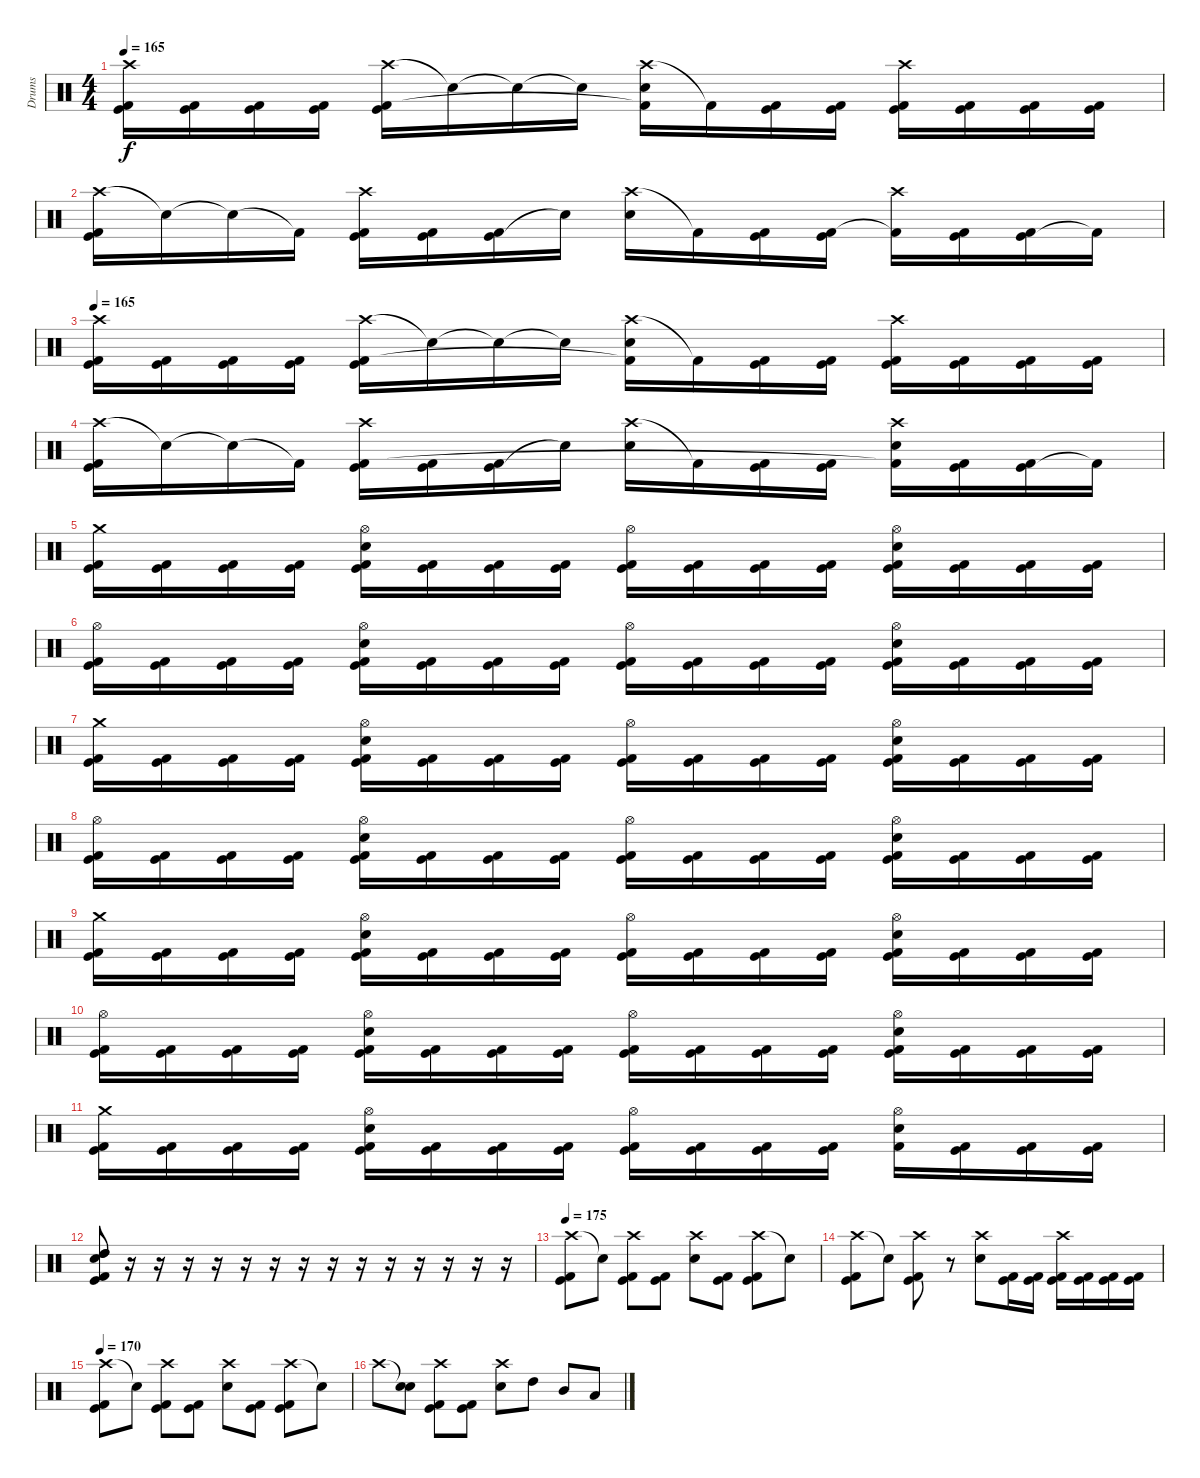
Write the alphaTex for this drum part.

\track ("Drums" "Drums") {instrument percussion}
\staff {score}
\articulation defaults
\ts (4 4)
\tempo 165
\clef neutral
\ks c
("Crash high (hit)" "Kick (hit)" "Kick (hit) 2").16{dy f} ("Kick (hit)" "Kick (hit) 2").16 ("Kick (hit)" "Kick (hit) 2").16 ("Kick (hit)" "Kick (hit) 2").16 ("Crash high (hit)" "Kick (hit)" "Kick (hit) 2").16 "Snare (hit)"{t}.16 "Snare (hit)"{t}.16 "Snare (hit)"{t}.16 ("Crash high (hit)" "Electric Snare (hit)" "Kick (hit) 2"{t}).16 "Kick (hit) 2"{t}.16 ("Kick (hit)" "Kick (hit) 2").16 ("Kick (hit)" "Kick (hit) 2").16 ("Crash high (hit)" "Kick (hit)" "Kick (hit) 2").16 ("Kick (hit)" "Kick (hit) 2").16 ("Kick (hit)" "Kick (hit) 2").16 ("Kick (hit)" "Kick (hit) 2").16 |
("Crash high (hit)" "Kick (hit)" "Kick (hit) 2").16 "Snare (hit)"{t}.16 "Snare (hit)"{t}.16 "Kick (hit) 2"{t}.16 ("Crash high (hit)" "Kick (hit)" "Kick (hit) 2").16 ("Kick (hit)" "Kick (hit) 2").16 ("Kick (hit)" "Kick (hit) 2").16 "Snare (hit)"{t}.16 ("Crash high (hit)" "Electric Snare (hit)").16 "Kick (hit) 2"{t}.16 ("Kick (hit)" "Kick (hit) 2").16 ("Kick (hit)" "Kick (hit) 2").16 ("Crash high (hit)" "Kick (hit) 2"{t}).16 ("Kick (hit)" "Kick (hit) 2").16 ("Kick (hit)" "Kick (hit) 2").16 "Kick (hit) 2"{t}.16 |
\tempo 165
("Crash high (hit)" "Kick (hit)" "Kick (hit) 2").16 ("Kick (hit)" "Kick (hit) 2").16 ("Kick (hit)" "Kick (hit) 2").16 ("Kick (hit)" "Kick (hit) 2").16 ("Crash high (hit)" "Kick (hit)" "Kick (hit) 2").16 "Snare (hit)"{t}.16 "Snare (hit)"{t}.16 "Snare (hit)"{t}.16 ("Crash high (hit)" "Electric Snare (hit)" "Kick (hit) 2"{t}).16 "Kick (hit) 2"{t}.16 ("Kick (hit)" "Kick (hit) 2").16 ("Kick (hit)" "Kick (hit) 2").16 ("Crash high (hit)" "Kick (hit)" "Kick (hit) 2").16 ("Kick (hit)" "Kick (hit) 2").16 ("Kick (hit)" "Kick (hit) 2").16 ("Kick (hit)" "Kick (hit) 2").16 |
("Crash high (hit)" "Kick (hit)" "Kick (hit) 2").16 "Snare (hit)"{t}.16 "Snare (hit)"{t}.16 "Kick (hit) 2"{t}.16 ("Crash high (hit)" "Kick (hit)" "Kick (hit) 2").16 ("Kick (hit)" "Kick (hit) 2").16 ("Kick (hit)" "Kick (hit) 2").16 "Snare (hit)"{t}.16 ("Crash high (hit)" "Electric Snare (hit)").16 "Kick (hit) 2"{t}.16 ("Kick (hit)" "Kick (hit) 2").16 ("Kick (hit)" "Kick (hit) 2").16 ("Crash high (hit)" "Electric Snare (hit)" "Kick (hit) 2"{t}).16 ("Kick (hit)" "Kick (hit) 2").16 ("Kick (hit)" "Kick (hit) 2").16 "Kick (hit) 2"{t}.16 |
("Crash medium (hit)" "Kick (hit)" "Kick (hit) 2").16 ("Kick (hit)" "Kick (hit) 2").16 ("Kick (hit)" "Kick (hit) 2").16 ("Kick (hit)" "Kick (hit) 2").16 ("Kick (hit)" "Hi-Hat (open)" "Electric Snare (hit)" "Kick (hit) 2").16 ("Kick (hit)" "Kick (hit) 2").16 ("Kick (hit)" "Kick (hit) 2").16 ("Kick (hit)" "Kick (hit) 2").16 ("Hi-Hat (open)" "Kick (hit)" "Kick (hit) 2").16 ("Kick (hit)" "Kick (hit) 2").16 ("Kick (hit)" "Kick (hit) 2").16 ("Kick (hit)" "Kick (hit) 2").16 ("Kick (hit)" "Hi-Hat (open)" "Electric Snare (hit)" "Kick (hit) 2").16 ("Kick (hit)" "Kick (hit) 2").16 ("Kick (hit)" "Kick (hit) 2").16 ("Kick (hit)" "Kick (hit) 2").16 |
("Hi-Hat (open)" "Kick (hit)" "Kick (hit) 2").16 ("Kick (hit)" "Kick (hit) 2").16 ("Kick (hit)" "Kick (hit) 2").16 ("Kick (hit)" "Kick (hit) 2").16 ("Kick (hit)" "Hi-Hat (open)" "Electric Snare (hit)" "Kick (hit) 2").16 ("Kick (hit)" "Kick (hit) 2").16 ("Kick (hit)" "Kick (hit) 2").16 ("Kick (hit)" "Kick (hit) 2").16 ("Hi-Hat (open)" "Kick (hit)" "Kick (hit) 2").16 ("Kick (hit)" "Kick (hit) 2").16 ("Kick (hit)" "Kick (hit) 2").16 ("Kick (hit)" "Kick (hit) 2").16 ("Kick (hit)" "Hi-Hat (open)" "Electric Snare (hit)" "Kick (hit) 2").16 ("Kick (hit)" "Kick (hit) 2").16 ("Kick (hit)" "Kick (hit) 2").16 ("Kick (hit)" "Kick (hit) 2").16 |
("Crash medium (hit)" "Kick (hit)" "Kick (hit) 2").16 ("Kick (hit)" "Kick (hit) 2").16 ("Kick (hit)" "Kick (hit) 2").16 ("Kick (hit)" "Kick (hit) 2").16 ("Kick (hit)" "Hi-Hat (open)" "Electric Snare (hit)" "Kick (hit) 2").16 ("Kick (hit)" "Kick (hit) 2").16 ("Kick (hit)" "Kick (hit) 2").16 ("Kick (hit)" "Kick (hit) 2").16 ("Hi-Hat (open)" "Kick (hit)" "Kick (hit) 2").16 ("Kick (hit)" "Kick (hit) 2").16 ("Kick (hit)" "Kick (hit) 2").16 ("Kick (hit)" "Kick (hit) 2").16 ("Kick (hit)" "Hi-Hat (open)" "Electric Snare (hit)" "Kick (hit) 2").16 ("Kick (hit)" "Kick (hit) 2").16 ("Kick (hit)" "Kick (hit) 2").16 ("Kick (hit)" "Kick (hit) 2").16 |
("Hi-Hat (open)" "Kick (hit)" "Kick (hit) 2").16 ("Kick (hit)" "Kick (hit) 2").16 ("Kick (hit)" "Kick (hit) 2").16 ("Kick (hit)" "Kick (hit) 2").16 ("Kick (hit)" "Hi-Hat (open)" "Electric Snare (hit)" "Kick (hit) 2").16 ("Kick (hit)" "Kick (hit) 2").16 ("Kick (hit)" "Kick (hit) 2").16 ("Kick (hit)" "Kick (hit) 2").16 ("Hi-Hat (open)" "Kick (hit)" "Kick (hit) 2").16 ("Kick (hit)" "Kick (hit) 2").16 ("Kick (hit)" "Kick (hit) 2").16 ("Kick (hit)" "Kick (hit) 2").16 ("Kick (hit)" "Hi-Hat (open)" "Electric Snare (hit)" "Kick (hit) 2").16 ("Kick (hit)" "Kick (hit) 2").16 ("Kick (hit)" "Kick (hit) 2").16 ("Kick (hit)" "Kick (hit) 2").16 |
("Crash medium (hit)" "Kick (hit)" "Kick (hit) 2").16 ("Kick (hit)" "Kick (hit) 2").16 ("Kick (hit)" "Kick (hit) 2").16 ("Kick (hit)" "Kick (hit) 2").16 ("Kick (hit)" "Hi-Hat (open)" "Electric Snare (hit)" "Kick (hit) 2").16 ("Kick (hit)" "Kick (hit) 2").16 ("Kick (hit)" "Kick (hit) 2").16 ("Kick (hit)" "Kick (hit) 2").16 ("Hi-Hat (open)" "Kick (hit)" "Kick (hit) 2").16 ("Kick (hit)" "Kick (hit) 2").16 ("Kick (hit)" "Kick (hit) 2").16 ("Kick (hit)" "Kick (hit) 2").16 ("Kick (hit)" "Hi-Hat (open)" "Electric Snare (hit)" "Kick (hit) 2").16 ("Kick (hit)" "Kick (hit) 2").16 ("Kick (hit)" "Kick (hit) 2").16 ("Kick (hit)" "Kick (hit) 2").16 |
("Hi-Hat (open)" "Kick (hit)" "Kick (hit) 2").16 ("Kick (hit)" "Kick (hit) 2").16 ("Kick (hit)" "Kick (hit) 2").16 ("Kick (hit)" "Kick (hit) 2").16 ("Kick (hit)" "Hi-Hat (open)" "Electric Snare (hit)" "Kick (hit) 2").16 ("Kick (hit)" "Kick (hit) 2").16 ("Kick (hit)" "Kick (hit) 2").16 ("Kick (hit)" "Kick (hit) 2").16 ("Hi-Hat (open)" "Kick (hit)" "Kick (hit) 2").16 ("Kick (hit)" "Kick (hit) 2").16 ("Kick (hit)" "Kick (hit) 2").16 ("Kick (hit)" "Kick (hit) 2").16 ("Kick (hit)" "Hi-Hat (open)" "Electric Snare (hit)" "Kick (hit) 2").16 ("Kick (hit)" "Kick (hit) 2").16 ("Kick (hit)" "Kick (hit) 2").16 ("Kick (hit)" "Kick (hit) 2").16 |
("Crash medium (hit)" "Kick (hit)" "Kick (hit) 2").16 ("Kick (hit)" "Kick (hit) 2").16 ("Kick (hit)" "Kick (hit) 2").16 ("Kick (hit)" "Kick (hit) 2").16 ("Kick (hit)" "Hi-Hat (open)" "Electric Snare (hit)" "Kick (hit) 2").16 ("Kick (hit)" "Kick (hit) 2").16 ("Kick (hit)" "Kick (hit) 2").16 ("Kick (hit)" "Kick (hit) 2").16 ("Hi-Hat (open)" "Kick (hit)" "Kick (hit) 2").16 ("Kick (hit)" "Kick (hit) 2").16 ("Kick (hit)" "Kick (hit) 2").16 ("Kick (hit)" "Kick (hit) 2").16 ("Hi-Hat (open)" "Electric Snare (hit)" "Kick (hit) 2").16 ("Kick (hit)" "Kick (hit) 2").16 ("Kick (hit)" "Kick (hit) 2").16 ("Kick (hit)" "Kick (hit) 2").16 |
("Electric Snare (hit)" "High Tom (hit)" "High Tom (hit)" "Kick (hit)" "Kick (hit) 2").8 r.16 r.16 r.16 r.16 r.16 r.16 r.16 r.16 r.16 r.16 r.16 r.16 r.16 r.16 |
\tempo 175
("Crash high (hit)" "Kick (hit)" "Kick (hit) 2").8 "Snare (hit)"{t}.8 ("Crash high (hit)" "Kick (hit)" "Kick (hit) 2").8 ("Kick (hit)" "Kick (hit) 2").8 ("Crash high (hit)" "Electric Snare (hit)").8 ("Kick (hit)" "Kick (hit) 2").8 ("Crash high (hit)" "Kick (hit)" "Kick (hit) 2").8 "Snare (hit)"{t}.8 |
("Crash high (hit)" "Kick (hit)" "Kick (hit) 2").8 "Snare (hit)"{t}.8 ("Crash high (hit)" "Kick (hit)" "Kick (hit) 2").8 r.8 ("Crash high (hit)" "Electric Snare (hit)").8 ("Kick (hit)" "Kick (hit) 2").16 ("Kick (hit)" "Kick (hit) 2").16 ("Crash high (hit)" "Kick (hit)" "Kick (hit) 2").16 ("Kick (hit)" "Kick (hit) 2").16 ("Kick (hit)" "Kick (hit) 2").16 ("Kick (hit)" "Kick (hit) 2").16 |
\tempo 175
\tempo 170
("Crash high (hit)" "Kick (hit)" "Kick (hit) 2").8 "Snare (hit)"{t}.8 ("Crash high (hit)" "Kick (hit)" "Kick (hit) 2").8 ("Kick (hit)" "Kick (hit) 2").8 ("Crash high (hit)" "Electric Snare (hit)").8 ("Kick (hit)" "Kick (hit) 2").8 ("Crash high (hit)" "Kick (hit)" "Kick (hit) 2").8 "Snare (hit)"{t}.8 |
"Crash high (hit)".8 ("Snare (hit)"{t} "Electric Snare (hit)").8 ("Crash high (hit)" "Kick (hit)" "Kick (hit) 2").8 ("Kick (hit)" "Kick (hit) 2").8 ("Crash high (hit)" "Electric Snare (hit)").8 "High Tom (hit)".8 "Mid Tom (hit)".8 "Low Tom (hit)".8
